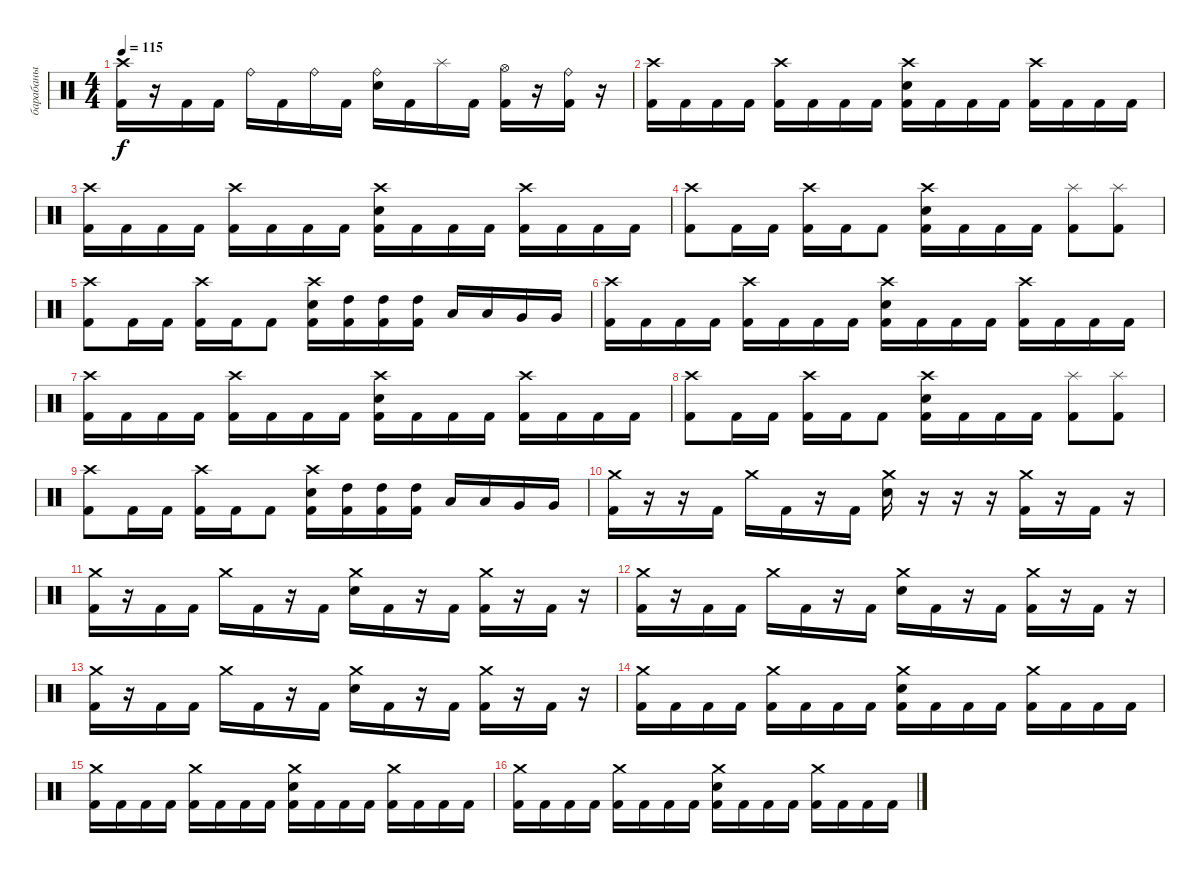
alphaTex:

\track ("барабаны" "барабаны") {instrument percussion}
\staff {score}
\articulation defaults
\ts (4 4)
\tempo 115
\clef neutral
\ks c
("Crash high (hit)" "Kick (hit) 2").16{dy f} r.16 "Kick (hit) 2".16 "Kick (hit) 2".16 "Ride (bell)".16 "Kick (hit) 2".16 "Ride (bell)".16 "Kick (hit) 2".16 ("Ride (bell)" "Snare (hit) 2").16 "Kick (hit) 2".16 "Splash (hit)".16 "Kick (hit) 2".16 ("Hi-Hat (open)" "Kick (hit) 2").16 r.16 ("Ride (bell)" "Kick (hit) 2").16 r.16 |
("Crash high (hit)" "Kick (hit) 2").16 "Kick (hit) 2".16 "Kick (hit) 2".16 "Kick (hit) 2".16 ("Crash high (hit)" "Kick (hit) 2").16 "Kick (hit) 2".16 "Kick (hit) 2".16 "Kick (hit) 2".16 ("Crash high (hit)" "Snare (hit) 2" "Kick (hit) 2").16 "Kick (hit) 2".16 "Kick (hit) 2".16 "Kick (hit) 2".16 ("Crash high (hit)" "Kick (hit) 2").16 "Kick (hit) 2".16 "Kick (hit) 2".16 "Kick (hit) 2".16 |
("Crash high (hit)" "Kick (hit) 2").16 "Kick (hit) 2".16 "Kick (hit) 2".16 "Kick (hit) 2".16 ("Crash high (hit)" "Kick (hit) 2").16 "Kick (hit) 2".16 "Kick (hit) 2".16 "Kick (hit) 2".16 ("Crash high (hit)" "Snare (hit) 2" "Kick (hit) 2").16 "Kick (hit) 2".16 "Kick (hit) 2".16 "Kick (hit) 2".16 ("Crash high (hit)" "Kick (hit) 2").16 "Kick (hit) 2".16 "Kick (hit) 2".16 "Kick (hit) 2".16 |
("Crash high (hit)" "Kick (hit) 2").8 "Kick (hit) 2".16 "Kick (hit) 2".16 ("Crash high (hit)" "Kick (hit) 2").16 "Kick (hit) 2".16 "Kick (hit) 2".8 ("Crash high (hit)" "Snare (hit) 2" "Kick (hit) 2").16 "Kick (hit) 2".16 "Kick (hit) 2".16 "Kick (hit) 2".16 ("Splash (hit)" "Kick (hit) 2").8 ("Splash (hit)" "Kick (hit) 2").8 |
("Crash high (hit)" "Kick (hit) 2").8 "Kick (hit) 2".16 "Kick (hit) 2".16 ("Crash high (hit)" "Kick (hit) 2").16 "Kick (hit) 2".16 "Kick (hit) 2".8 ("Crash high (hit)" "Snare (hit) 2" "Kick (hit) 2").16 ("High Tom (hit)" "Kick (hit) 2").16 ("High Tom (hit)" "Kick (hit) 2").16 ("High Tom (hit)" "Kick (hit) 2").16 "Low Tom (hit)".16 "Low Tom (hit)".16 "Very Low Tom (hit)".16 "Very Low Tom (hit)".16 |
("Crash high (hit)" "Kick (hit) 2").16 "Kick (hit) 2".16 "Kick (hit) 2".16 "Kick (hit) 2".16 ("Crash high (hit)" "Kick (hit) 2").16 "Kick (hit) 2".16 "Kick (hit) 2".16 "Kick (hit) 2".16 ("Crash high (hit)" "Snare (hit) 2" "Kick (hit) 2").16 "Kick (hit) 2".16 "Kick (hit) 2".16 "Kick (hit) 2".16 ("Crash high (hit)" "Kick (hit) 2").16 "Kick (hit) 2".16 "Kick (hit) 2".16 "Kick (hit) 2".16 |
("Crash high (hit)" "Kick (hit) 2").16 "Kick (hit) 2".16 "Kick (hit) 2".16 "Kick (hit) 2".16 ("Crash high (hit)" "Kick (hit) 2").16 "Kick (hit) 2".16 "Kick (hit) 2".16 "Kick (hit) 2".16 ("Crash high (hit)" "Snare (hit) 2" "Kick (hit) 2").16 "Kick (hit) 2".16 "Kick (hit) 2".16 "Kick (hit) 2".16 ("Crash high (hit)" "Kick (hit) 2").16 "Kick (hit) 2".16 "Kick (hit) 2".16 "Kick (hit) 2".16 |
("Crash high (hit)" "Kick (hit) 2").8 "Kick (hit) 2".16 "Kick (hit) 2".16 ("Crash high (hit)" "Kick (hit) 2").16 "Kick (hit) 2".16 "Kick (hit) 2".8 ("Crash high (hit)" "Snare (hit) 2" "Kick (hit) 2").16 "Kick (hit) 2".16 "Kick (hit) 2".16 "Kick (hit) 2".16 ("Splash (hit)" "Kick (hit) 2").8 ("Splash (hit)" "Kick (hit) 2").8 |
("Crash high (hit)" "Kick (hit) 2").8 "Kick (hit) 2".16 "Kick (hit) 2".16 ("Crash high (hit)" "Kick (hit) 2").16 "Kick (hit) 2".16 "Kick (hit) 2".8 ("Crash high (hit)" "Snare (hit) 2" "Kick (hit) 2").16 ("High Tom (hit)" "Kick (hit) 2").16 ("High Tom (hit)" "Kick (hit) 2").16 ("High Tom (hit)" "Kick (hit) 2").16 "Low Tom (hit)".16 "Low Tom (hit)".16 "Very Low Tom (hit)".16 "Very Low Tom (hit)".16 |
("Crash medium (hit)" "Kick (hit) 2").16 r.16 r.16 "Kick (hit) 2".16 "Crash medium (hit)".16 "Kick (hit) 2".16 r.16 "Kick (hit) 2".16 ("Crash medium (hit)" "Snare (hit) 2").16 r.16 r.16 r.16 ("Crash medium (hit)" "Kick (hit) 2").16 r.16 "Kick (hit) 2".16 r.16 |
("Crash medium (hit)" "Kick (hit) 2").16 r.16 "Kick (hit) 2".16 "Kick (hit) 2".16 "Crash medium (hit)".16 "Kick (hit) 2".16 r.16 "Kick (hit) 2".16 ("Crash medium (hit)" "Snare (hit) 2").16 "Kick (hit) 2".16 r.16 "Kick (hit) 2".16 ("Crash medium (hit)" "Kick (hit) 2").16 r.16 "Kick (hit) 2".16 r.16 |
("Crash medium (hit)" "Kick (hit) 2").16 r.16 "Kick (hit) 2".16 "Kick (hit) 2".16 "Crash medium (hit)".16 "Kick (hit) 2".16 r.16 "Kick (hit) 2".16 ("Crash medium (hit)" "Snare (hit) 2").16 "Kick (hit) 2".16 r.16 "Kick (hit) 2".16 ("Crash medium (hit)" "Kick (hit) 2").16 r.16 "Kick (hit) 2".16 r.16 |
("Crash medium (hit)" "Kick (hit) 2").16 r.16 "Kick (hit) 2".16 "Kick (hit) 2".16 "Crash medium (hit)".16 "Kick (hit) 2".16 r.16 "Kick (hit) 2".16 ("Crash medium (hit)" "Snare (hit) 2").16 "Kick (hit) 2".16 r.16 "Kick (hit) 2".16 ("Crash medium (hit)" "Kick (hit) 2").16 r.16 "Kick (hit) 2".16 r.16 |
("Crash medium (hit)" "Kick (hit) 2").16 "Kick (hit) 2".16 "Kick (hit) 2".16 "Kick (hit) 2".16 ("Crash medium (hit)" "Kick (hit) 2").16 "Kick (hit) 2".16 "Kick (hit) 2".16 "Kick (hit) 2".16 ("Crash medium (hit)" "Snare (hit) 2" "Kick (hit) 2").16 "Kick (hit) 2".16 "Kick (hit) 2".16 "Kick (hit) 2".16 ("Crash medium (hit)" "Kick (hit) 2").16 "Kick (hit) 2".16 "Kick (hit) 2".16 "Kick (hit) 2".16 |
("Crash medium (hit)" "Kick (hit) 2").16 "Kick (hit) 2".16 "Kick (hit) 2".16 "Kick (hit) 2".16 ("Crash medium (hit)" "Kick (hit) 2").16 "Kick (hit) 2".16 "Kick (hit) 2".16 "Kick (hit) 2".16 ("Crash medium (hit)" "Snare (hit) 2" "Kick (hit) 2").16 "Kick (hit) 2".16 "Kick (hit) 2".16 "Kick (hit) 2".16 ("Crash medium (hit)" "Kick (hit) 2").16 "Kick (hit) 2".16 "Kick (hit) 2".16 "Kick (hit) 2".16 |
("Crash medium (hit)" "Kick (hit) 2").16 "Kick (hit) 2".16 "Kick (hit) 2".16 "Kick (hit) 2".16 ("Crash medium (hit)" "Kick (hit) 2").16 "Kick (hit) 2".16 "Kick (hit) 2".16 "Kick (hit) 2".16 ("Crash medium (hit)" "Snare (hit) 2" "Kick (hit) 2").16 "Kick (hit) 2".16 "Kick (hit) 2".16 "Kick (hit) 2".16 ("Crash medium (hit)" "Kick (hit) 2").16 "Kick (hit) 2".16 "Kick (hit) 2".16 "Kick (hit) 2".16
